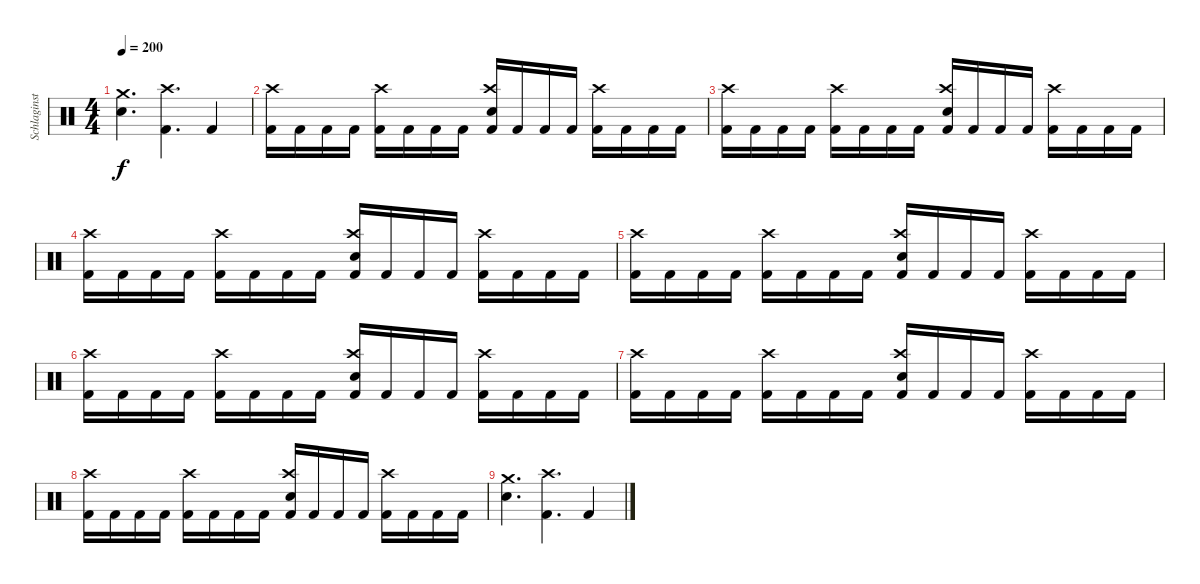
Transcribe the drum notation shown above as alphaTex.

\track ("Schlaginstrumente - Auswahl" "Schlaginst") {instrument percussion}
\staff {score}
\articulation defaults
\ts (4 4)
\tempo 200
\clef neutral
\ks c
("Crash medium (hit)" "Snare (hit) 2").4{d dy f} ("Crash high (hit)" "Kick (hit) 2").4{d} "Kick (hit) 2".4 |
("Crash high (hit)" "Kick (hit) 2").16 "Kick (hit) 2".16 "Kick (hit) 2".16 "Kick (hit) 2".16 ("Crash high (hit)" "Kick (hit) 2").16 "Kick (hit) 2".16 "Kick (hit) 2".16 "Kick (hit) 2".16 ("Crash high (hit)" "Snare (hit) 2" "Kick (hit) 2").16 "Kick (hit) 2".16 "Kick (hit) 2".16 "Kick (hit) 2".16 ("Crash high (hit)" "Kick (hit) 2").16 "Kick (hit) 2".16 "Kick (hit) 2".16 "Kick (hit) 2".16 |
("Crash high (hit)" "Kick (hit) 2").16 "Kick (hit) 2".16 "Kick (hit) 2".16 "Kick (hit) 2".16 ("Crash high (hit)" "Kick (hit) 2").16 "Kick (hit) 2".16 "Kick (hit) 2".16 "Kick (hit) 2".16 ("Crash high (hit)" "Snare (hit) 2" "Kick (hit) 2").16 "Kick (hit) 2".16 "Kick (hit) 2".16 "Kick (hit) 2".16 ("Crash high (hit)" "Kick (hit) 2").16 "Kick (hit) 2".16 "Kick (hit) 2".16 "Kick (hit) 2".16 |
("Crash high (hit)" "Kick (hit) 2").16 "Kick (hit) 2".16 "Kick (hit) 2".16 "Kick (hit) 2".16 ("Crash high (hit)" "Kick (hit) 2").16 "Kick (hit) 2".16 "Kick (hit) 2".16 "Kick (hit) 2".16 ("Crash high (hit)" "Snare (hit) 2" "Kick (hit) 2").16 "Kick (hit) 2".16 "Kick (hit) 2".16 "Kick (hit) 2".16 ("Crash high (hit)" "Kick (hit) 2").16 "Kick (hit) 2".16 "Kick (hit) 2".16 "Kick (hit) 2".16 |
("Crash high (hit)" "Kick (hit) 2").16 "Kick (hit) 2".16 "Kick (hit) 2".16 "Kick (hit) 2".16 ("Crash high (hit)" "Kick (hit) 2").16 "Kick (hit) 2".16 "Kick (hit) 2".16 "Kick (hit) 2".16 ("Crash high (hit)" "Snare (hit) 2" "Kick (hit) 2").16 "Kick (hit) 2".16 "Kick (hit) 2".16 "Kick (hit) 2".16 ("Crash high (hit)" "Kick (hit) 2").16 "Kick (hit) 2".16 "Kick (hit) 2".16 "Kick (hit) 2".16 |
("Crash high (hit)" "Kick (hit) 2").16 "Kick (hit) 2".16 "Kick (hit) 2".16 "Kick (hit) 2".16 ("Crash high (hit)" "Kick (hit) 2").16 "Kick (hit) 2".16 "Kick (hit) 2".16 "Kick (hit) 2".16 ("Crash high (hit)" "Snare (hit) 2" "Kick (hit) 2").16 "Kick (hit) 2".16 "Kick (hit) 2".16 "Kick (hit) 2".16 ("Crash high (hit)" "Kick (hit) 2").16 "Kick (hit) 2".16 "Kick (hit) 2".16 "Kick (hit) 2".16 |
("Crash high (hit)" "Kick (hit) 2").16 "Kick (hit) 2".16 "Kick (hit) 2".16 "Kick (hit) 2".16 ("Crash high (hit)" "Kick (hit) 2").16 "Kick (hit) 2".16 "Kick (hit) 2".16 "Kick (hit) 2".16 ("Crash high (hit)" "Snare (hit) 2" "Kick (hit) 2").16 "Kick (hit) 2".16 "Kick (hit) 2".16 "Kick (hit) 2".16 ("Crash high (hit)" "Kick (hit) 2").16 "Kick (hit) 2".16 "Kick (hit) 2".16 "Kick (hit) 2".16 |
("Crash high (hit)" "Kick (hit) 2").16 "Kick (hit) 2".16 "Kick (hit) 2".16 "Kick (hit) 2".16 ("Crash high (hit)" "Kick (hit) 2").16 "Kick (hit) 2".16 "Kick (hit) 2".16 "Kick (hit) 2".16 ("Crash high (hit)" "Snare (hit) 2" "Kick (hit) 2").16 "Kick (hit) 2".16 "Kick (hit) 2".16 "Kick (hit) 2".16 ("Crash high (hit)" "Kick (hit) 2").16 "Kick (hit) 2".16 "Kick (hit) 2".16 "Kick (hit) 2".16 |
("Crash medium (hit)" "Snare (hit) 2").4{d} ("Crash high (hit)" "Kick (hit) 2").4{d} "Kick (hit) 2".4
